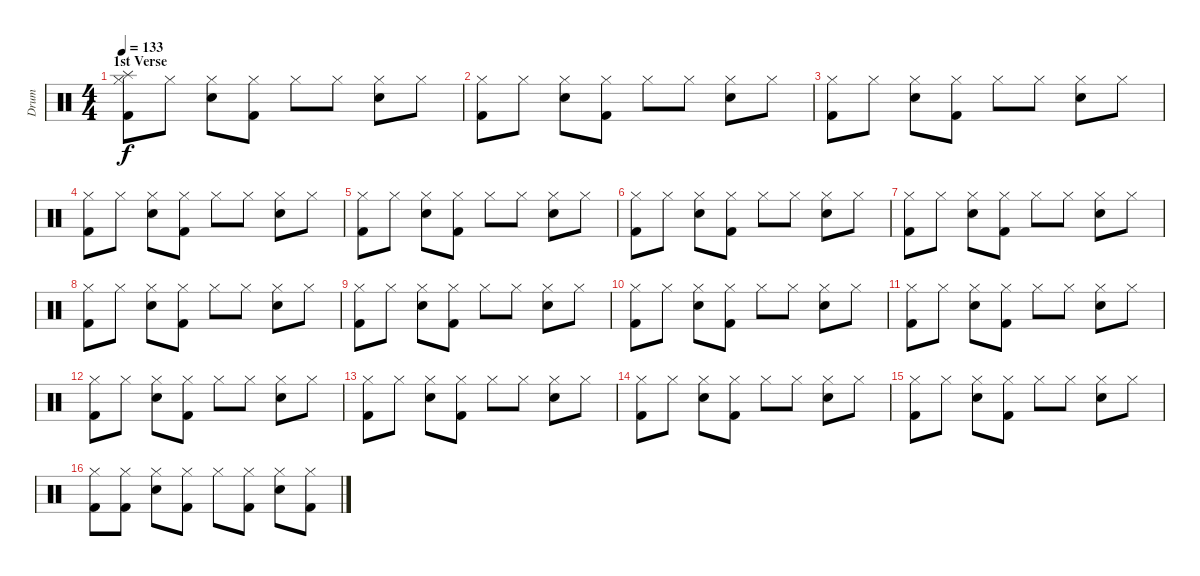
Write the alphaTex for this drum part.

\track ("Drum" "Drum") {instrument percussion}
\staff {score}
\articulation defaults
\ts (4 4)
\section ("" "1st Verse")
\tempo 133
\clef neutral
\ks c
("Splash (hit)" "Hi-Hat (closed)" "Kick (hit) 2").8{dy f} "Hi-Hat (closed)".8 ("Snare (hit) 2" "Hi-Hat (closed)").8 ("Hi-Hat (closed)" "Kick (hit) 2").8 "Hi-Hat (closed)".8 "Hi-Hat (closed)".8 ("Snare (hit) 2" "Hi-Hat (closed)").8 "Hi-Hat (closed)".8 |
("Hi-Hat (closed)" "Kick (hit) 2").8 "Hi-Hat (closed)".8 ("Snare (hit) 2" "Hi-Hat (closed)").8 ("Hi-Hat (closed)" "Kick (hit) 2").8 "Hi-Hat (closed)".8 "Hi-Hat (closed)".8 ("Snare (hit) 2" "Hi-Hat (closed)").8 "Hi-Hat (closed)".8 |
("Hi-Hat (closed)" "Kick (hit) 2").8 "Hi-Hat (closed)".8 ("Snare (hit) 2" "Hi-Hat (closed)").8 ("Hi-Hat (closed)" "Kick (hit) 2").8 "Hi-Hat (closed)".8 "Hi-Hat (closed)".8 ("Snare (hit) 2" "Hi-Hat (closed)").8 "Hi-Hat (closed)".8 |
("Hi-Hat (closed)" "Kick (hit) 2").8 "Hi-Hat (closed)".8 ("Snare (hit) 2" "Hi-Hat (closed)").8 ("Hi-Hat (closed)" "Kick (hit) 2").8 "Hi-Hat (closed)".8 "Hi-Hat (closed)".8 ("Snare (hit) 2" "Hi-Hat (closed)").8 "Hi-Hat (closed)".8 |
("Hi-Hat (closed)" "Kick (hit) 2").8 "Hi-Hat (closed)".8 ("Snare (hit) 2" "Hi-Hat (closed)").8 ("Hi-Hat (closed)" "Kick (hit) 2").8 "Hi-Hat (closed)".8 "Hi-Hat (closed)".8 ("Snare (hit) 2" "Hi-Hat (closed)").8 "Hi-Hat (closed)".8 |
("Hi-Hat (closed)" "Kick (hit) 2").8 "Hi-Hat (closed)".8 ("Snare (hit) 2" "Hi-Hat (closed)").8 ("Hi-Hat (closed)" "Kick (hit) 2").8 "Hi-Hat (closed)".8 "Hi-Hat (closed)".8 ("Snare (hit) 2" "Hi-Hat (closed)").8 "Hi-Hat (closed)".8 |
("Hi-Hat (closed)" "Kick (hit) 2").8 "Hi-Hat (closed)".8 ("Snare (hit) 2" "Hi-Hat (closed)").8 ("Hi-Hat (closed)" "Kick (hit) 2").8 "Hi-Hat (closed)".8 "Hi-Hat (closed)".8 ("Snare (hit) 2" "Hi-Hat (closed)").8 "Hi-Hat (closed)".8 |
("Hi-Hat (closed)" "Kick (hit) 2").8 "Hi-Hat (closed)".8 ("Snare (hit) 2" "Hi-Hat (closed)").8 ("Hi-Hat (closed)" "Kick (hit) 2").8 "Hi-Hat (closed)".8 "Hi-Hat (closed)".8 ("Snare (hit) 2" "Hi-Hat (closed)").8 "Hi-Hat (closed)".8 |
("Hi-Hat (closed)" "Kick (hit) 2").8 "Hi-Hat (closed)".8 ("Snare (hit) 2" "Hi-Hat (closed)").8 ("Hi-Hat (closed)" "Kick (hit) 2").8 "Hi-Hat (closed)".8 "Hi-Hat (closed)".8 ("Snare (hit) 2" "Hi-Hat (closed)").8 "Hi-Hat (closed)".8 |
("Hi-Hat (closed)" "Kick (hit) 2").8 "Hi-Hat (closed)".8 ("Snare (hit) 2" "Hi-Hat (closed)").8 ("Hi-Hat (closed)" "Kick (hit) 2").8 "Hi-Hat (closed)".8 "Hi-Hat (closed)".8 ("Snare (hit) 2" "Hi-Hat (closed)").8 "Hi-Hat (closed)".8 |
("Hi-Hat (closed)" "Kick (hit) 2").8 "Hi-Hat (closed)".8 ("Snare (hit) 2" "Hi-Hat (closed)").8 ("Hi-Hat (closed)" "Kick (hit) 2").8 "Hi-Hat (closed)".8 "Hi-Hat (closed)".8 ("Snare (hit) 2" "Hi-Hat (closed)").8 "Hi-Hat (closed)".8 |
("Hi-Hat (closed)" "Kick (hit) 2").8 "Hi-Hat (closed)".8 ("Snare (hit) 2" "Hi-Hat (closed)").8 ("Hi-Hat (closed)" "Kick (hit) 2").8 "Hi-Hat (closed)".8 "Hi-Hat (closed)".8 ("Snare (hit) 2" "Hi-Hat (closed)").8 "Hi-Hat (closed)".8 |
("Hi-Hat (closed)" "Kick (hit) 2").8 "Hi-Hat (closed)".8 ("Snare (hit) 2" "Hi-Hat (closed)").8 ("Hi-Hat (closed)" "Kick (hit) 2").8 "Hi-Hat (closed)".8 "Hi-Hat (closed)".8 ("Snare (hit) 2" "Hi-Hat (closed)").8 "Hi-Hat (closed)".8 |
("Hi-Hat (closed)" "Kick (hit) 2").8 "Hi-Hat (closed)".8 ("Snare (hit) 2" "Hi-Hat (closed)").8 ("Hi-Hat (closed)" "Kick (hit) 2").8 "Hi-Hat (closed)".8 "Hi-Hat (closed)".8 ("Snare (hit) 2" "Hi-Hat (closed)").8 "Hi-Hat (closed)".8 |
("Hi-Hat (closed)" "Kick (hit) 2").8 "Hi-Hat (closed)".8 ("Snare (hit) 2" "Hi-Hat (closed)").8 ("Hi-Hat (closed)" "Kick (hit) 2").8 "Hi-Hat (closed)".8 "Hi-Hat (closed)".8 ("Snare (hit) 2" "Hi-Hat (closed)").8 "Hi-Hat (closed)".8 |
("Hi-Hat (closed)" "Kick (hit) 2").8 ("Hi-Hat (closed)" "Kick (hit) 2").8 ("Snare (hit) 2" "Hi-Hat (closed)").8 ("Hi-Hat (closed)" "Kick (hit) 2").8 "Hi-Hat (closed)".8 ("Hi-Hat (closed)" "Kick (hit) 2").8 ("Snare (hit) 2" "Hi-Hat (closed)").8 ("Hi-Hat (closed)" "Kick (hit) 2").8
